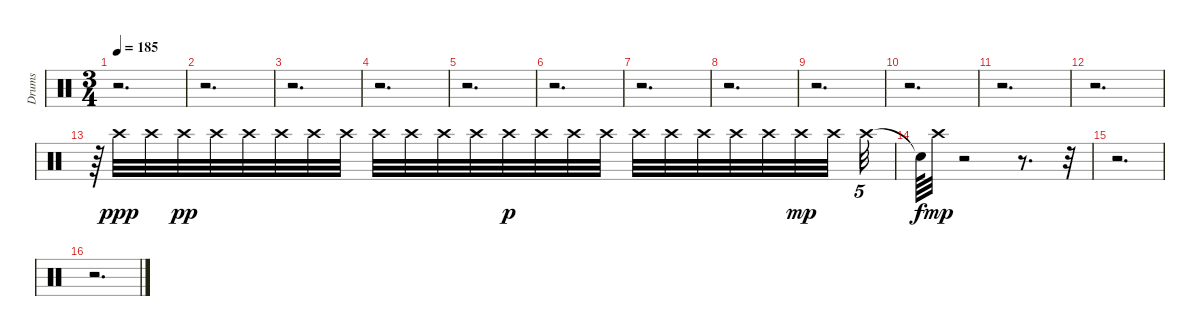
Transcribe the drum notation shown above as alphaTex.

\track ("Drums" "Drums") {instrument percussion}
\staff {score}
\articulation defaults
\ts (3 4)
\tempo 185
\clef neutral
\ks c
r.2{d dy f} |
r.2{d} |
r.2{d} |
r.2{d} |
r.2{d} |
r.2{d} |
r.2{d} |
r.2{d} |
r.2{d} |
r.2{d} |
r.2{d} |
r.2{d} |
r.64 "Crash high (hit)".32{dy ppp} "Crash high (hit)".32 "Crash high (hit)".32{dy pp} "Crash high (hit)".32 "Crash high (hit)".32 "Crash high (hit)".32 "Crash high (hit)".32 "Crash high (hit)".32 "Crash high (hit)".32 "Crash high (hit)".32 "Crash high (hit)".32 "Crash high (hit)".32 "Crash high (hit)".32{dy p} "Crash high (hit)".32 "Crash high (hit)".32 "Crash high (hit)".32 "Crash high (hit)".32 "Crash high (hit)".32 "Crash high (hit)".32 "Crash high (hit)".32 "Crash high (hit)".32 "Crash high (hit)".32{dy mp} "Crash high (hit)".32{beam splitsecondary} "Crash high (hit)".32{tu (5 4)} |
"Snare (hit)"{t}.64{dy f} "Crash high (hit)".32{dy mp} r.2 r.8{d} r.32{tu (5 4)} |
r.2{d} |
r.2{d}
